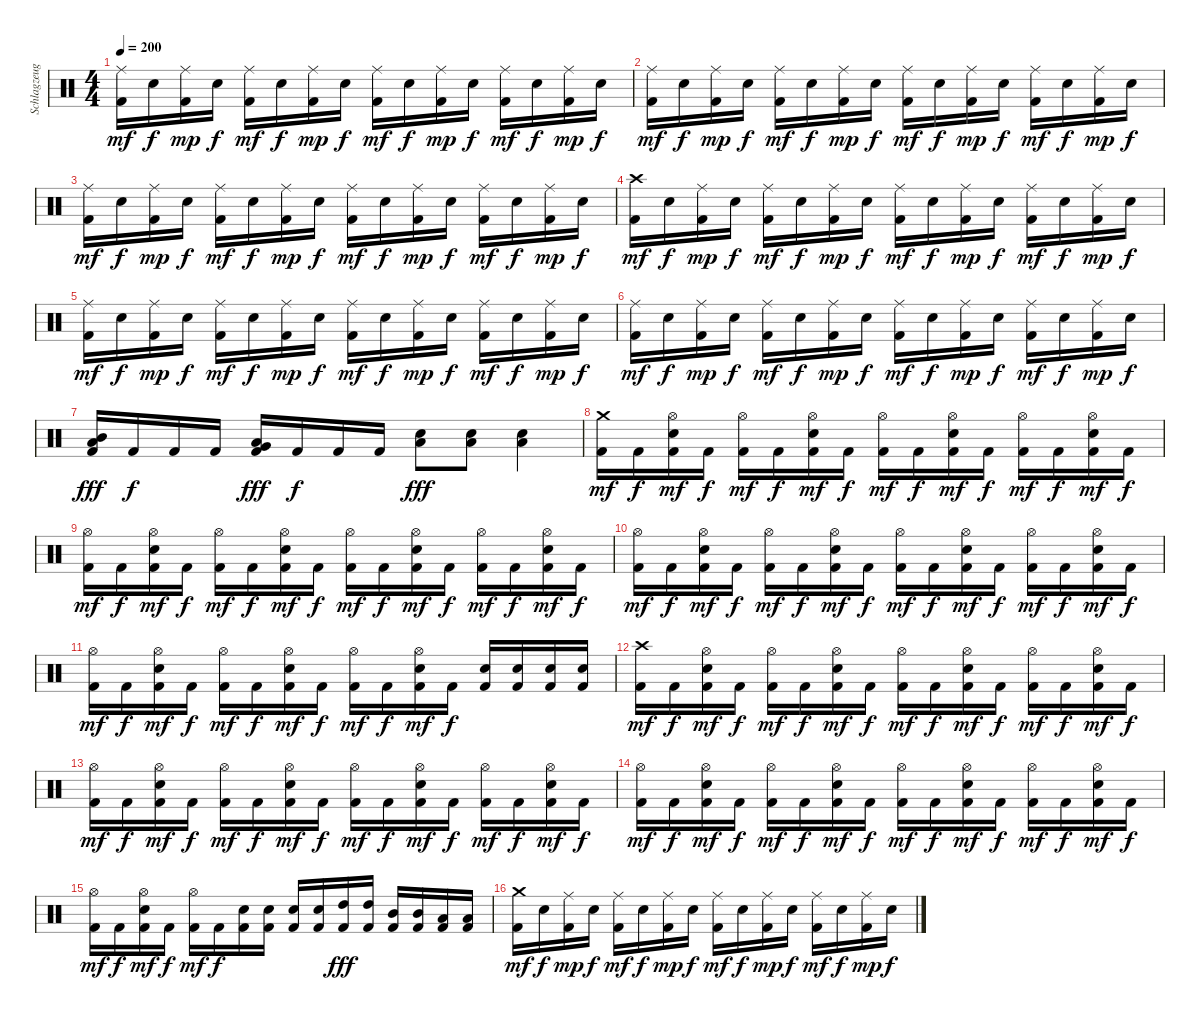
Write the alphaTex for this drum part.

\track ("Schlagzeug" "Schlagzeug") {instrument percussion}
\staff {score}
\articulation defaults
\ts (4 4)
\tempo 200
\clef neutral
\ks c
("Ride (middle)" "Kick (hit) 2").16{dy mf} "Electric Snare (hit)".16{dy f} ("Ride (middle)" "Kick (hit) 2").16{dy mp} "Electric Snare (hit)".16{dy f} ("Ride (middle)" "Kick (hit) 2").16{dy mf} "Electric Snare (hit)".16{dy f} ("Ride (middle)" "Kick (hit) 2").16{dy mp} "Electric Snare (hit)".16{dy f} ("Ride (middle)" "Kick (hit) 2").16{dy mf} "Electric Snare (hit)".16{dy f} ("Ride (middle)" "Kick (hit) 2").16{dy mp} "Electric Snare (hit)".16{dy f} ("Ride (middle)" "Kick (hit) 2").16{dy mf} "Electric Snare (hit)".16{dy f} ("Ride (middle)" "Kick (hit) 2").16{dy mp} "Electric Snare (hit)".16{dy f} |
("Ride (middle)" "Kick (hit) 2").16{dy mf} "Electric Snare (hit)".16{dy f} ("Ride (middle)" "Kick (hit) 2").16{dy mp} "Electric Snare (hit)".16{dy f} ("Ride (middle)" "Kick (hit) 2").16{dy mf} "Electric Snare (hit)".16{dy f} ("Ride (middle)" "Kick (hit) 2").16{dy mp} "Electric Snare (hit)".16{dy f} ("Ride (middle)" "Kick (hit) 2").16{dy mf} "Electric Snare (hit)".16{dy f} ("Ride (middle)" "Kick (hit) 2").16{dy mp} "Electric Snare (hit)".16{dy f} ("Ride (middle)" "Kick (hit) 2").16{dy mf} "Electric Snare (hit)".16{dy f} ("Ride (middle)" "Kick (hit) 2").16{dy mp} "Electric Snare (hit)".16{dy f} |
("Ride (middle)" "Kick (hit) 2").16{dy mf} "Electric Snare (hit)".16{dy f} ("Ride (middle)" "Kick (hit) 2").16{dy mp} "Electric Snare (hit)".16{dy f} ("Ride (middle)" "Kick (hit) 2").16{dy mf} "Electric Snare (hit)".16{dy f} ("Ride (middle)" "Kick (hit) 2").16{dy mp} "Electric Snare (hit)".16{dy f} ("Ride (middle)" "Kick (hit) 2").16{dy mf} "Electric Snare (hit)".16{dy f} ("Ride (middle)" "Kick (hit) 2").16{dy mp} "Electric Snare (hit)".16{dy f} ("Ride (middle)" "Kick (hit) 2").16{dy mf} "Electric Snare (hit)".16{dy f} ("Ride (middle)" "Kick (hit) 2").16{dy mp} "Electric Snare (hit)".16{dy f} |
("Crash high (hit)" "Kick (hit) 2").16{dy mf} "Electric Snare (hit)".16{dy f} ("Ride (middle)" "Kick (hit) 2").16{dy mp} "Electric Snare (hit)".16{dy f} ("Ride (middle)" "Kick (hit) 2").16{dy mf} "Electric Snare (hit)".16{dy f} ("Ride (middle)" "Kick (hit) 2").16{dy mp} "Electric Snare (hit)".16{dy f} ("Ride (middle)" "Kick (hit) 2").16{dy mf} "Electric Snare (hit)".16{dy f} ("Ride (middle)" "Kick (hit) 2").16{dy mp} "Electric Snare (hit)".16{dy f} ("Ride (middle)" "Kick (hit) 2").16{dy mf} "Electric Snare (hit)".16{dy f} ("Ride (middle)" "Kick (hit) 2").16{dy mp} "Electric Snare (hit)".16{dy f} |
("Ride (middle)" "Kick (hit) 2").16{dy mf} "Electric Snare (hit)".16{dy f} ("Ride (middle)" "Kick (hit) 2").16{dy mp} "Electric Snare (hit)".16{dy f} ("Ride (middle)" "Kick (hit) 2").16{dy mf} "Electric Snare (hit)".16{dy f} ("Ride (middle)" "Kick (hit) 2").16{dy mp} "Electric Snare (hit)".16{dy f} ("Ride (middle)" "Kick (hit) 2").16{dy mf} "Electric Snare (hit)".16{dy f} ("Ride (middle)" "Kick (hit) 2").16{dy mp} "Electric Snare (hit)".16{dy f} ("Ride (middle)" "Kick (hit) 2").16{dy mf} "Electric Snare (hit)".16{dy f} ("Ride (middle)" "Kick (hit) 2").16{dy mp} "Electric Snare (hit)".16{dy f} |
("Ride (middle)" "Kick (hit) 2").16{dy mf} "Electric Snare (hit)".16{dy f} ("Ride (middle)" "Kick (hit) 2").16{dy mp} "Electric Snare (hit)".16{dy f} ("Ride (middle)" "Kick (hit) 2").16{dy mf} "Electric Snare (hit)".16{dy f} ("Ride (middle)" "Kick (hit) 2").16{dy mp} "Electric Snare (hit)".16{dy f} ("Ride (middle)" "Kick (hit) 2").16{dy mf} "Electric Snare (hit)".16{dy f} ("Ride (middle)" "Kick (hit) 2").16{dy mp} "Electric Snare (hit)".16{dy f} ("Ride (middle)" "Kick (hit) 2").16{dy mf} "Electric Snare (hit)".16{dy f} ("Ride (middle)" "Kick (hit) 2").16{dy mp} "Electric Snare (hit)".16{dy f} |
("Mid Tom (hit)" "Low Tom (hit)" "Kick (hit) 2").16{bd 480 dy fff} "Kick (hit) 2".16{dy f} "Kick (hit) 2".16 "Kick (hit) 2".16 ("Low Tom (hit)" "Very Low Tom (hit)" "Kick (hit) 2").16{bd 480 dy fff} "Kick (hit) 2".16{dy f} "Kick (hit) 2".16 "Kick (hit) 2".16 ("Electric Snare (hit)" "Low Tom (hit)").8{bd 480 dy fff} ("Electric Snare (hit)" "Low Tom (hit)").8{bd 480} ("Electric Snare (hit)" "Low Tom (hit)").4{bd 480} |
("Crash medium (hit)" "Kick (hit) 2").16{dy mf} "Kick (hit) 2".16{dy f} ("Hi-Hat (open)" "Electric Snare (hit)" "Kick (hit) 2").16{dy mf} "Kick (hit) 2".16{dy f} ("Hi-Hat (open)" "Kick (hit) 2").16{dy mf} "Kick (hit) 2".16{dy f} ("Hi-Hat (open)" "Electric Snare (hit)" "Kick (hit) 2").16{dy mf} "Kick (hit) 2".16{dy f} ("Hi-Hat (open)" "Kick (hit) 2").16{dy mf} "Kick (hit) 2".16{dy f} ("Hi-Hat (open)" "Electric Snare (hit)" "Kick (hit) 2").16{dy mf} "Kick (hit) 2".16{dy f} ("Hi-Hat (open)" "Kick (hit) 2").16{dy mf} "Kick (hit) 2".16{dy f} ("Hi-Hat (open)" "Electric Snare (hit)" "Kick (hit) 2").16{dy mf} "Kick (hit) 2".16{dy f} |
("Hi-Hat (open)" "Kick (hit) 2").16{dy mf} "Kick (hit) 2".16{dy f} ("Hi-Hat (open)" "Electric Snare (hit)" "Kick (hit) 2").16{dy mf} "Kick (hit) 2".16{dy f} ("Hi-Hat (open)" "Kick (hit) 2").16{dy mf} "Kick (hit) 2".16{dy f} ("Hi-Hat (open)" "Electric Snare (hit)" "Kick (hit) 2").16{dy mf} "Kick (hit) 2".16{dy f} ("Hi-Hat (open)" "Kick (hit) 2").16{dy mf} "Kick (hit) 2".16{dy f} ("Hi-Hat (open)" "Electric Snare (hit)" "Kick (hit) 2").16{dy mf} "Kick (hit) 2".16{dy f} ("Hi-Hat (open)" "Kick (hit) 2").16{dy mf} "Kick (hit) 2".16{dy f} ("Hi-Hat (open)" "Electric Snare (hit)" "Kick (hit) 2").16{dy mf} "Kick (hit) 2".16{dy f} |
("Hi-Hat (open)" "Kick (hit) 2").16{dy mf} "Kick (hit) 2".16{dy f} ("Hi-Hat (open)" "Electric Snare (hit)" "Kick (hit) 2").16{dy mf} "Kick (hit) 2".16{dy f} ("Hi-Hat (open)" "Kick (hit) 2").16{dy mf} "Kick (hit) 2".16{dy f} ("Hi-Hat (open)" "Electric Snare (hit)" "Kick (hit) 2").16{dy mf} "Kick (hit) 2".16{dy f} ("Hi-Hat (open)" "Kick (hit) 2").16{dy mf} "Kick (hit) 2".16{dy f} ("Hi-Hat (open)" "Electric Snare (hit)" "Kick (hit) 2").16{dy mf} "Kick (hit) 2".16{dy f} ("Hi-Hat (open)" "Kick (hit) 2").16{dy mf} "Kick (hit) 2".16{dy f} ("Hi-Hat (open)" "Electric Snare (hit)" "Kick (hit) 2").16{dy mf} "Kick (hit) 2".16{dy f} |
("Hi-Hat (open)" "Kick (hit) 2").16{dy mf} "Kick (hit) 2".16{dy f} ("Hi-Hat (open)" "Electric Snare (hit)" "Kick (hit) 2").16{dy mf} "Kick (hit) 2".16{dy f} ("Hi-Hat (open)" "Kick (hit) 2").16{dy mf} "Kick (hit) 2".16{dy f} ("Hi-Hat (open)" "Electric Snare (hit)" "Kick (hit) 2").16{dy mf} "Kick (hit) 2".16{dy f} ("Hi-Hat (open)" "Kick (hit) 2").16{dy mf} "Kick (hit) 2".16{dy f} ("Hi-Hat (open)" "Electric Snare (hit)" "Kick (hit) 2").16{dy mf} "Kick (hit) 2".16{dy f} ("Electric Snare (hit)" "Kick (hit) 2").16 ("Electric Snare (hit)" "Kick (hit) 2").16 ("Electric Snare (hit)" "Kick (hit) 2").16 ("Electric Snare (hit)" "Kick (hit) 2").16 |
("Crash high (hit)" "Kick (hit) 2").16{dy mf} "Kick (hit) 2".16{dy f} ("Hi-Hat (open)" "Electric Snare (hit)" "Kick (hit) 2").16{dy mf} "Kick (hit) 2".16{dy f} ("Hi-Hat (open)" "Kick (hit) 2").16{dy mf} "Kick (hit) 2".16{dy f} ("Hi-Hat (open)" "Electric Snare (hit)" "Kick (hit) 2").16{dy mf} "Kick (hit) 2".16{dy f} ("Hi-Hat (open)" "Kick (hit) 2").16{dy mf} "Kick (hit) 2".16{dy f} ("Hi-Hat (open)" "Electric Snare (hit)" "Kick (hit) 2").16{dy mf} "Kick (hit) 2".16{dy f} ("Hi-Hat (open)" "Kick (hit) 2").16{dy mf} "Kick (hit) 2".16{dy f} ("Hi-Hat (open)" "Electric Snare (hit)" "Kick (hit) 2").16{dy mf} "Kick (hit) 2".16{dy f} |
("Hi-Hat (open)" "Kick (hit) 2").16{dy mf} "Kick (hit) 2".16{dy f} ("Hi-Hat (open)" "Electric Snare (hit)" "Kick (hit) 2").16{dy mf} "Kick (hit) 2".16{dy f} ("Hi-Hat (open)" "Kick (hit) 2").16{dy mf} "Kick (hit) 2".16{dy f} ("Hi-Hat (open)" "Electric Snare (hit)" "Kick (hit) 2").16{dy mf} "Kick (hit) 2".16{dy f} ("Hi-Hat (open)" "Kick (hit) 2").16{dy mf} "Kick (hit) 2".16{dy f} ("Hi-Hat (open)" "Electric Snare (hit)" "Kick (hit) 2").16{dy mf} "Kick (hit) 2".16{dy f} ("Hi-Hat (open)" "Kick (hit) 2").16{dy mf} "Kick (hit) 2".16{dy f} ("Hi-Hat (open)" "Electric Snare (hit)" "Kick (hit) 2").16{dy mf} "Kick (hit) 2".16{dy f} |
("Hi-Hat (open)" "Kick (hit) 2").16{dy mf} "Kick (hit) 2".16{dy f} ("Hi-Hat (open)" "Electric Snare (hit)" "Kick (hit) 2").16{dy mf} "Kick (hit) 2".16{dy f} ("Hi-Hat (open)" "Kick (hit) 2").16{dy mf} "Kick (hit) 2".16{dy f} ("Hi-Hat (open)" "Electric Snare (hit)" "Kick (hit) 2").16{dy mf} "Kick (hit) 2".16{dy f} ("Hi-Hat (open)" "Kick (hit) 2").16{dy mf} "Kick (hit) 2".16{dy f} ("Hi-Hat (open)" "Electric Snare (hit)" "Kick (hit) 2").16{dy mf} "Kick (hit) 2".16{dy f} ("Hi-Hat (open)" "Kick (hit) 2").16{dy mf} "Kick (hit) 2".16{dy f} ("Hi-Hat (open)" "Electric Snare (hit)" "Kick (hit) 2").16{dy mf} "Kick (hit) 2".16{dy f} |
("Hi-Hat (open)" "Kick (hit) 2").16{dy mf} "Kick (hit) 2".16{dy f} ("Hi-Hat (open)" "Electric Snare (hit)" "Kick (hit) 2").16{dy mf} "Kick (hit) 2".16{dy f} ("Hi-Hat (open)" "Kick (hit) 2").16{dy mf} "Kick (hit) 2".16{dy f} ("Electric Snare (hit)" "Kick (hit) 2").16 ("Electric Snare (hit)" "Kick (hit) 2").16 ("Electric Snare (hit)" "Kick (hit) 2").16 ("Electric Snare (hit)" "Kick (hit) 2").16 ("High Tom (hit)" "Kick (hit) 2").16{dy fff} ("High Tom (hit)" "Kick (hit) 2").16 ("Mid Tom (hit)" "Kick (hit) 2").16 ("Mid Tom (hit)" "Kick (hit) 2").16 ("Low Tom (hit)" "Kick (hit) 2").16 ("Low Tom (hit)" "Kick (hit) 2").16 |
("Crash medium (hit)" "Kick (hit) 2").16{dy mf} "Electric Snare (hit)".16{dy f} ("Ride (middle)" "Kick (hit) 2").16{dy mp} "Electric Snare (hit)".16{dy f} ("Ride (middle)" "Kick (hit) 2").16{dy mf} "Electric Snare (hit)".16{dy f} ("Ride (middle)" "Kick (hit) 2").16{dy mp} "Electric Snare (hit)".16{dy f} ("Ride (middle)" "Kick (hit) 2").16{dy mf} "Electric Snare (hit)".16{dy f} ("Ride (middle)" "Kick (hit) 2").16{dy mp} "Electric Snare (hit)".16{dy f} ("Ride (middle)" "Kick (hit) 2").16{dy mf} "Electric Snare (hit)".16{dy f} ("Ride (middle)" "Kick (hit) 2").16{dy mp} "Electric Snare (hit)".16{dy f}
